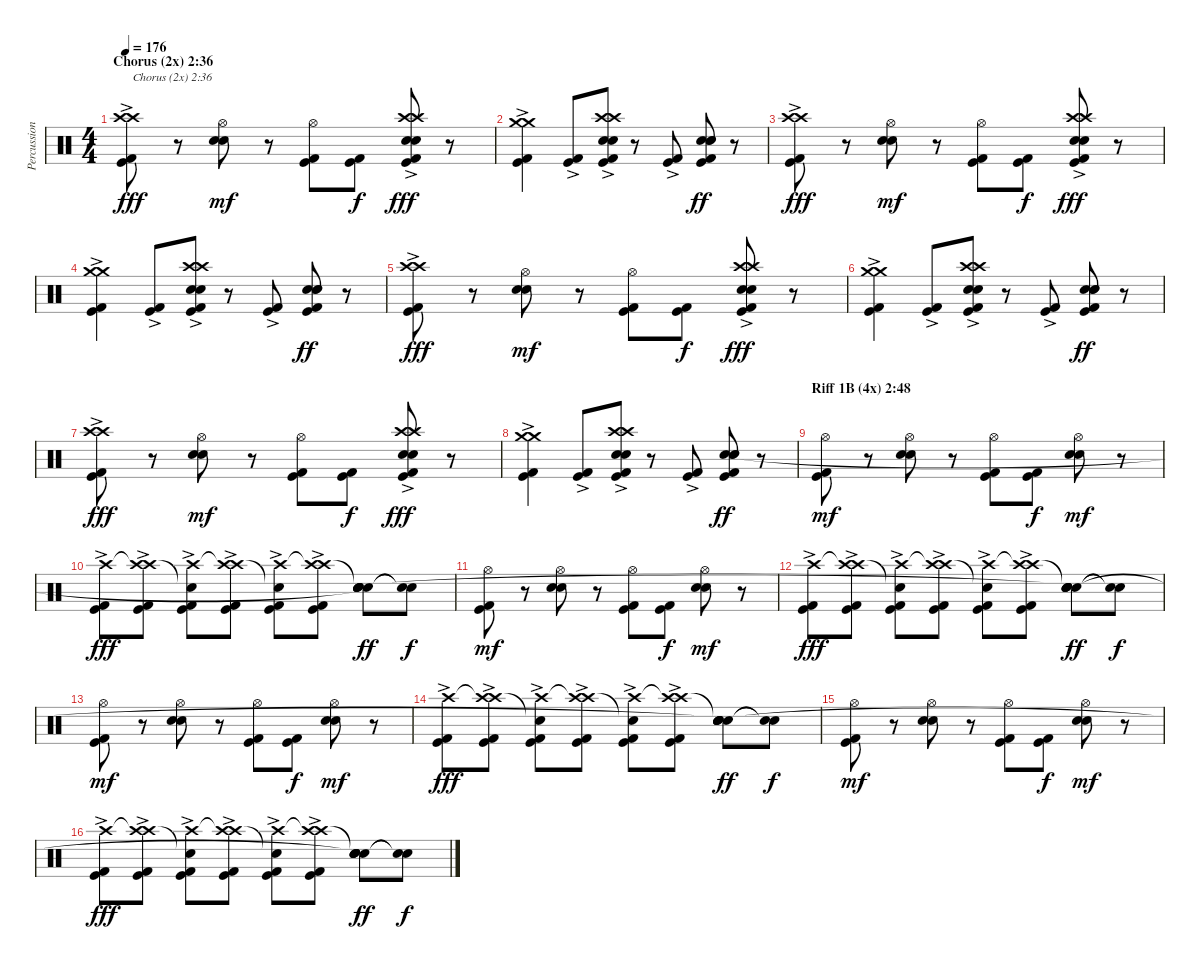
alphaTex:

\track ("Percussion" "Percussion") {instrument percussion}
\staff {score}
\articulation defaults
\ts (4 4)
\section ("" "Chorus (2x) 2:36")
\tempo 176
\clef neutral
\ks c
("Kick (hit) 2" "Kick (hit)" "Crash high (hit)"{ac} "Crash high (hit)"{ac}).8{txt "Chorus (2x) 2:36" dy fff} r.8 ("Electric Snare (hit)" "Snare (hit) 2" "Hi-Hat (open)").8{dy mf} r.8 ("Kick (hit) 2" "Kick (hit)" "Hi-Hat (open)").8 ("Kick (hit) 2" "Kick (hit)").8{dy f} ("Kick (hit) 2" "Kick (hit)" "Electric Snare (hit)" "Snare (hit) 2" "Crash high (hit)"{ac} "Crash high (hit)"{ac}).8{dy fff} r.8 |
("Kick (hit) 2" "Kick (hit)" "Crash medium (hit)"{ac} "Crash medium (hit)"{ac}).4 ("Kick (hit) 2"{ac} "Kick (hit)"{ac}).8 ("Kick (hit) 2" "Kick (hit)" "Electric Snare (hit)" "Snare (hit) 2" "Crash high (hit)"{ac} "Crash high (hit)"{ac}).8 r.8 ("Kick (hit) 2"{ac} "Kick (hit)"{ac}).8 ("Kick (hit) 2" "Kick (hit)" "Electric Snare (hit)" "Snare (hit) 2" "Electric Snare (hit)").8{dy ff} r.8 |
("Kick (hit) 2" "Kick (hit)" "Crash high (hit)"{ac} "Crash high (hit)"{ac}).8{dy fff} r.8 ("Electric Snare (hit)" "Snare (hit) 2" "Hi-Hat (open)").8{dy mf} r.8 ("Kick (hit) 2" "Kick (hit)" "Hi-Hat (open)").8 ("Kick (hit) 2" "Kick (hit)").8{dy f} ("Kick (hit) 2" "Kick (hit)" "Electric Snare (hit)" "Snare (hit) 2" "Crash high (hit)"{ac} "Crash high (hit)"{ac}).8{dy fff} r.8 |
("Kick (hit) 2" "Kick (hit)" "Crash medium (hit)"{ac} "Crash medium (hit)"{ac}).4 ("Kick (hit) 2"{ac} "Kick (hit)"{ac}).8 ("Kick (hit) 2" "Kick (hit)" "Electric Snare (hit)" "Snare (hit) 2" "Crash high (hit)"{ac} "Crash high (hit)"{ac}).8 r.8 ("Kick (hit) 2"{ac} "Kick (hit)"{ac}).8 ("Kick (hit) 2" "Kick (hit)" "Electric Snare (hit)" "Snare (hit) 2" "Electric Snare (hit)").8{dy ff} r.8 |
("Kick (hit) 2" "Kick (hit)" "Crash high (hit)"{ac} "Crash high (hit)"{ac}).8{dy fff} r.8 ("Electric Snare (hit)" "Snare (hit) 2" "Hi-Hat (open)").8{dy mf} r.8 ("Kick (hit) 2" "Kick (hit)" "Hi-Hat (open)").8 ("Kick (hit) 2" "Kick (hit)").8{dy f} ("Kick (hit) 2" "Kick (hit)" "Electric Snare (hit)" "Snare (hit) 2" "Crash high (hit)"{ac} "Crash high (hit)"{ac}).8{dy fff} r.8 |
("Kick (hit) 2" "Kick (hit)" "Crash medium (hit)"{ac} "Crash medium (hit)"{ac}).4 ("Kick (hit) 2"{ac} "Kick (hit)"{ac}).8 ("Kick (hit) 2" "Kick (hit)" "Electric Snare (hit)" "Snare (hit) 2" "Crash high (hit)"{ac} "Crash high (hit)"{ac}).8 r.8 ("Kick (hit) 2"{ac} "Kick (hit)"{ac}).8 ("Kick (hit) 2" "Kick (hit)" "Electric Snare (hit)" "Snare (hit) 2" "Electric Snare (hit)").8{dy ff} r.8 |
("Kick (hit) 2" "Kick (hit)" "Crash high (hit)"{ac} "Crash high (hit)"{ac}).8{dy fff} r.8 ("Electric Snare (hit)" "Snare (hit) 2" "Hi-Hat (open)").8{dy mf} r.8 ("Kick (hit) 2" "Kick (hit)" "Hi-Hat (open)").8 ("Kick (hit) 2" "Kick (hit)").8{dy f} ("Kick (hit) 2" "Kick (hit)" "Electric Snare (hit)" "Snare (hit) 2" "Crash high (hit)"{ac} "Crash high (hit)"{ac}).8{dy fff} r.8 |
("Kick (hit) 2" "Kick (hit)" "Crash medium (hit)"{ac} "Crash medium (hit)"{ac}).4 ("Kick (hit) 2"{ac} "Kick (hit)"{ac}).8 ("Kick (hit) 2" "Kick (hit)" "Electric Snare (hit)" "Snare (hit) 2" "Crash high (hit)"{ac} "Crash high (hit)"{ac}).8 r.8 ("Kick (hit) 2"{ac} "Kick (hit)"{ac}).8 ("Kick (hit) 2" "Kick (hit)" "Electric Snare (hit)" "Snare (hit) 2" "Electric Snare (hit)").8{dy ff} r.8 |
\section ("" "Riff 1B (4x) 2:48")
("Kick (hit) 2" "Kick (hit)" "Hi-Hat (open)").8{dy mf} r.8 ("Electric Snare (hit)" "Snare (hit) 2" "Hi-Hat (open)").8 r.8 ("Kick (hit) 2" "Kick (hit)" "Hi-Hat (open)").8 ("Kick (hit) 2" "Kick (hit)").8{dy f} ("Electric Snare (hit)" "Snare (hit) 2" "Hi-Hat (open)").8{dy mf} r.8 |
("Kick (hit) 2" "Kick (hit)" "Crash high (hit)"{ac}).8{dy fff} ("Kick (hit) 2" "Kick (hit)" "Crash high (hit)"{t} "Crash high (hit)"{ac}).8 ("Kick (hit) 2" "Kick (hit)" "Crash high (hit)"{ac} "Snare (hit)"{t}).8 ("Kick (hit) 2" "Kick (hit)" "Crash high (hit)"{t} "Crash high (hit)"{ac}).8 ("Kick (hit) 2" "Kick (hit)" "Crash high (hit)"{ac} "Snare (hit)"{t}).8 ("Kick (hit) 2" "Kick (hit)" "Crash high (hit)"{t} "Crash high (hit)"{ac}).8 ("Electric Snare (hit)" "Snare (hit) 2" "Electric Snare (hit)" "Electric Snare (hit)"{t} "Snare (hit)"{t}).8{dy ff} ("Snare (hit)"{t} "Snare (hit)"{t}).8{dy f} |
("Kick (hit) 2" "Kick (hit)" "Hi-Hat (open)").8{dy mf} r.8 ("Electric Snare (hit)" "Snare (hit) 2" "Hi-Hat (open)").8 r.8 ("Kick (hit) 2" "Kick (hit)" "Hi-Hat (open)").8 ("Kick (hit) 2" "Kick (hit)").8{dy f} ("Electric Snare (hit)" "Snare (hit) 2" "Hi-Hat (open)").8{dy mf} r.8 |
("Kick (hit) 2" "Kick (hit)" "Crash high (hit)"{ac}).8{dy fff} ("Kick (hit) 2" "Kick (hit)" "Crash high (hit)"{t} "Crash high (hit)"{ac}).8 ("Kick (hit) 2" "Kick (hit)" "Crash high (hit)"{ac} "Snare (hit)"{t}).8 ("Kick (hit) 2" "Kick (hit)" "Crash high (hit)"{t} "Crash high (hit)"{ac}).8 ("Kick (hit) 2" "Kick (hit)" "Crash high (hit)"{ac} "Snare (hit)"{t}).8 ("Kick (hit) 2" "Kick (hit)" "Crash high (hit)"{t} "Crash high (hit)"{ac}).8 ("Electric Snare (hit)" "Snare (hit) 2" "Electric Snare (hit)" "Electric Snare (hit)"{t} "Snare (hit)"{t}).8{dy ff} ("Snare (hit)"{t} "Snare (hit)"{t}).8{dy f} |
("Kick (hit) 2" "Kick (hit)" "Hi-Hat (open)").8{dy mf} r.8 ("Electric Snare (hit)" "Snare (hit) 2" "Hi-Hat (open)").8 r.8 ("Kick (hit) 2" "Kick (hit)" "Hi-Hat (open)").8 ("Kick (hit) 2" "Kick (hit)").8{dy f} ("Electric Snare (hit)" "Snare (hit) 2" "Hi-Hat (open)").8{dy mf} r.8 |
("Kick (hit) 2" "Kick (hit)" "Crash high (hit)"{ac}).8{dy fff} ("Kick (hit) 2" "Kick (hit)" "Crash high (hit)"{t} "Crash high (hit)"{ac}).8 ("Kick (hit) 2" "Kick (hit)" "Crash high (hit)"{ac} "Snare (hit)"{t}).8 ("Kick (hit) 2" "Kick (hit)" "Crash high (hit)"{t} "Crash high (hit)"{ac}).8 ("Kick (hit) 2" "Kick (hit)" "Crash high (hit)"{ac} "Snare (hit)"{t}).8 ("Kick (hit) 2" "Kick (hit)" "Crash high (hit)"{t} "Crash high (hit)"{ac}).8 ("Electric Snare (hit)" "Snare (hit) 2" "Electric Snare (hit)" "Electric Snare (hit)"{t} "Snare (hit)"{t}).8{dy ff} ("Snare (hit)"{t} "Snare (hit)"{t}).8{dy f} |
("Kick (hit) 2" "Kick (hit)" "Hi-Hat (open)").8{dy mf} r.8 ("Electric Snare (hit)" "Snare (hit) 2" "Hi-Hat (open)").8 r.8 ("Kick (hit) 2" "Kick (hit)" "Hi-Hat (open)").8 ("Kick (hit) 2" "Kick (hit)").8{dy f} ("Electric Snare (hit)" "Snare (hit) 2" "Hi-Hat (open)").8{dy mf} r.8 |
("Kick (hit) 2" "Kick (hit)" "Crash high (hit)"{ac}).8{dy fff} ("Kick (hit) 2" "Kick (hit)" "Crash high (hit)"{t} "Crash high (hit)"{ac}).8 ("Kick (hit) 2" "Kick (hit)" "Crash high (hit)"{ac} "Snare (hit)"{t}).8 ("Kick (hit) 2" "Kick (hit)" "Crash high (hit)"{t} "Crash high (hit)"{ac}).8 ("Kick (hit) 2" "Kick (hit)" "Crash high (hit)"{ac} "Snare (hit)"{t}).8 ("Kick (hit) 2" "Kick (hit)" "Crash high (hit)"{t} "Crash high (hit)"{ac}).8 ("Electric Snare (hit)" "Snare (hit) 2" "Electric Snare (hit)" "Electric Snare (hit)"{t} "Snare (hit)"{t}).8{dy ff} ("Snare (hit)"{t} "Snare (hit)"{t}).8{dy f}
